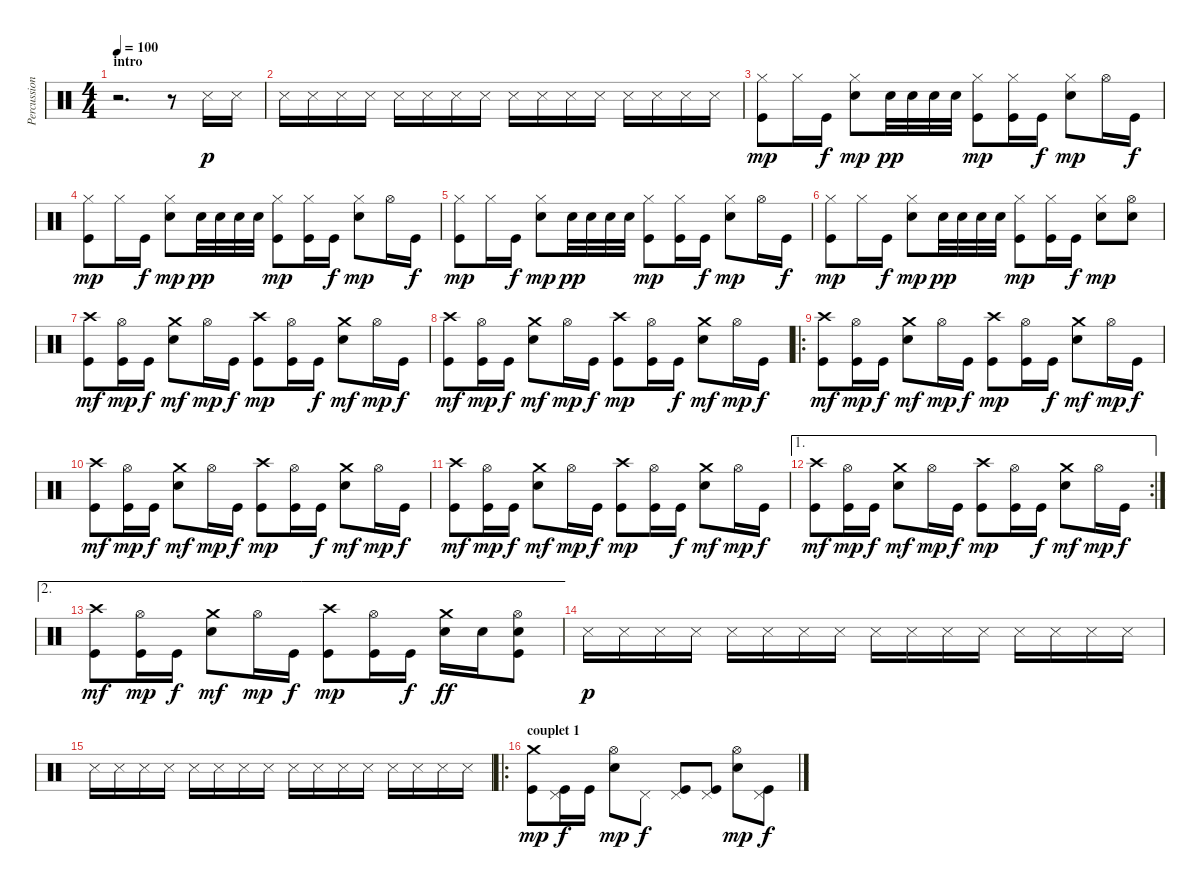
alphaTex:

\track ("Percussions" "Percussion") {instrument percussion}
\staff {score}
\articulation defaults
\ts (4 4)
\section ("" "intro")
\tempo 100
\clef neutral
\ks c
r.2{d dy p} r.8 "Metronome (hit)".16 "Metronome (hit)".16 |
"Metronome (hit)".16 "Metronome (hit)".16 "Metronome (hit)".16 "Metronome (hit)".16 "Metronome (hit)".16 "Metronome (hit)".16 "Metronome (hit)".16 "Metronome (hit)".16 "Metronome (hit)".16 "Metronome (hit)".16 "Metronome (hit)".16 "Metronome (hit)".16 "Metronome (hit)".16 "Metronome (hit)".16 "Metronome (hit)".16 "Metronome (hit)".16 |
("Hi-Hat (closed)" "Kick (hit)").8{dy mp} "Hi-Hat (closed)".16 "Kick (hit)".16{dy f} ("Hi-Hat (closed)" "Electric Snare (hit)").8{dy mp} "Snare (hit) 2".32{dy pp} "Snare (hit) 2".32 "Snare (hit) 2".32 "Snare (hit) 2".32 ("Hi-Hat (closed)" "Kick (hit)").8{dy mp} ("Hi-Hat (closed)" "Kick (hit)").16 "Kick (hit)".16{dy f} ("Hi-Hat (closed)" "Electric Snare (hit)").8{dy mp} "Hi-Hat (open)".16 "Kick (hit)".16{dy f} |
("Hi-Hat (closed)" "Kick (hit)").8{dy mp} "Hi-Hat (closed)".16 "Kick (hit)".16{dy f} ("Hi-Hat (closed)" "Electric Snare (hit)").8{dy mp} "Snare (hit) 2".32{dy pp} "Snare (hit) 2".32 "Snare (hit) 2".32 "Snare (hit) 2".32 ("Hi-Hat (closed)" "Kick (hit)").8{dy mp} ("Hi-Hat (closed)" "Kick (hit)").16 "Kick (hit)".16{dy f} ("Hi-Hat (closed)" "Electric Snare (hit)").8{dy mp} "Hi-Hat (open)".16 "Kick (hit)".16{dy f} |
("Hi-Hat (closed)" "Kick (hit)").8{dy mp} "Hi-Hat (closed)".16 "Kick (hit)".16{dy f} ("Hi-Hat (closed)" "Electric Snare (hit)").8{dy mp} "Snare (hit) 2".32{dy pp} "Snare (hit) 2".32 "Snare (hit) 2".32 "Snare (hit) 2".32 ("Hi-Hat (closed)" "Kick (hit)").8{dy mp} ("Hi-Hat (closed)" "Kick (hit)").16 "Kick (hit)".16{dy f} ("Hi-Hat (closed)" "Electric Snare (hit)").8{dy mp} "Hi-Hat (open)".16 "Kick (hit)".16{dy f} |
("Hi-Hat (closed)" "Kick (hit)").8{dy mp} "Hi-Hat (closed)".16 "Kick (hit)".16{dy f} ("Hi-Hat (closed)" "Electric Snare (hit)").8{dy mp} "Snare (hit) 2".32{dy pp} "Snare (hit) 2".32 "Snare (hit) 2".32 "Snare (hit) 2".32 ("Hi-Hat (closed)" "Kick (hit)").8{dy mp} ("Hi-Hat (closed)" "Kick (hit)").16 "Kick (hit)".16{dy f} ("Hi-Hat (closed)" "Electric Snare (hit)").8{dy mp volume 15} ("Hi-Hat (open)" "Electric Snare (hit)").8 |
("Crash high (hit)" "Kick (hit)").8{dy mf} ("Hi-Hat (open)" "Kick (hit)").16{dy mp} "Kick (hit)".16{dy f} ("Crash medium (hit)" "Electric Snare (hit)").8{dy mf} "Hi-Hat (open)".16{dy mp} "Kick (hit)".16{dy f} ("Crash high (hit)" "Kick (hit)").8{dy mp} ("Hi-Hat (open)" "Kick (hit)").16 "Kick (hit)".16{dy f} ("Crash medium (hit)" "Electric Snare (hit)").8{dy mf} "Hi-Hat (open)".16{dy mp} "Kick (hit)".16{dy f} |
("Crash high (hit)" "Kick (hit)").8{dy mf} ("Hi-Hat (open)" "Kick (hit)").16{dy mp} "Kick (hit)".16{dy f} ("Crash medium (hit)" "Electric Snare (hit)").8{dy mf} "Hi-Hat (open)".16{dy mp} "Kick (hit)".16{dy f} ("Crash high (hit)" "Kick (hit)").8{dy mp} ("Hi-Hat (open)" "Kick (hit)").16 "Kick (hit)".16{dy f} ("Crash medium (hit)" "Electric Snare (hit)").8{dy mf} "Hi-Hat (open)".16{dy mp} "Kick (hit)".16{dy f} |
\ro
("Crash high (hit)" "Kick (hit)").8{dy mf} ("Hi-Hat (open)" "Kick (hit)").16{dy mp} "Kick (hit)".16{dy f} ("Crash medium (hit)" "Electric Snare (hit)").8{dy mf} "Hi-Hat (open)".16{dy mp} "Kick (hit)".16{dy f} ("Crash high (hit)" "Kick (hit)").8{dy mp} ("Hi-Hat (open)" "Kick (hit)").16 "Kick (hit)".16{dy f} ("Crash medium (hit)" "Electric Snare (hit)").8{dy mf} "Hi-Hat (open)".16{dy mp} "Kick (hit)".16{dy f} |
("Crash high (hit)" "Kick (hit)").8{dy mf} ("Hi-Hat (open)" "Kick (hit)").16{dy mp} "Kick (hit)".16{dy f} ("Crash medium (hit)" "Electric Snare (hit)").8{dy mf} "Hi-Hat (open)".16{dy mp} "Kick (hit)".16{dy f} ("Crash high (hit)" "Kick (hit)").8{dy mp} ("Hi-Hat (open)" "Kick (hit)").16 "Kick (hit)".16{dy f} ("Crash medium (hit)" "Electric Snare (hit)").8{dy mf} "Hi-Hat (open)".16{dy mp} "Kick (hit)".16{dy f} |
("Crash high (hit)" "Kick (hit)").8{dy mf} ("Hi-Hat (open)" "Kick (hit)").16{dy mp} "Kick (hit)".16{dy f} ("Crash medium (hit)" "Electric Snare (hit)").8{dy mf} "Hi-Hat (open)".16{dy mp} "Kick (hit)".16{dy f} ("Crash high (hit)" "Kick (hit)").8{dy mp} ("Hi-Hat (open)" "Kick (hit)").16 "Kick (hit)".16{dy f} ("Crash medium (hit)" "Electric Snare (hit)").8{dy mf} "Hi-Hat (open)".16{dy mp} "Kick (hit)".16{dy f} |
\ae 1
\rc 2
("Crash high (hit)" "Kick (hit)").8{dy mf} ("Hi-Hat (open)" "Kick (hit)").16{dy mp} "Kick (hit)".16{dy f} ("Crash medium (hit)" "Electric Snare (hit)").8{dy mf} "Hi-Hat (open)".16{dy mp} "Kick (hit)".16{dy f} ("Crash high (hit)" "Kick (hit)").8{dy mp} ("Hi-Hat (open)" "Kick (hit)").16 "Kick (hit)".16{dy f} ("Crash medium (hit)" "Electric Snare (hit)").8{dy mf} "Hi-Hat (open)".16{dy mp} "Kick (hit)".16{dy f} |
\ae 2
("Crash high (hit)" "Kick (hit)").8{dy mf} ("Hi-Hat (open)" "Kick (hit)").16{dy mp} "Kick (hit)".16{dy f} ("Crash medium (hit)" "Electric Snare (hit)").8{dy mf} "Hi-Hat (open)".16{dy mp} "Kick (hit)".16{dy f} ("Crash high (hit)" "Kick (hit)").8{dy mp} ("Hi-Hat (open)" "Kick (hit)").16 "Kick (hit)".16{dy f} ("Crash medium (hit)" "Electric Snare (hit)").16{dy ff} "Electric Snare (hit)".16 ("Hi-Hat (open)" "Electric Snare (hit)" "Kick (hit)").8 |
"Metronome (hit)".16{dy p volume 10} "Metronome (hit)".16 "Metronome (hit)".16 "Metronome (hit)".16 "Metronome (hit)".16 "Metronome (hit)".16 "Metronome (hit)".16 "Metronome (hit)".16 "Metronome (hit)".16 "Metronome (hit)".16 "Metronome (hit)".16 "Metronome (hit)".16 "Metronome (hit)".16 "Metronome (hit)".16 "Metronome (hit)".16 "Metronome (hit)".16 |
"Metronome (hit)".16 "Metronome (hit)".16 "Metronome (hit)".16 "Metronome (hit)".16 "Metronome (hit)".16 "Metronome (hit)".16 "Metronome (hit)".16 "Metronome (hit)".16 "Metronome (hit)".16 "Metronome (hit)".16 "Metronome (hit)".16 "Metronome (hit)".16 "Metronome (hit)".16 "Metronome (hit)".16 "Metronome (hit)".16 "Metronome (hit)".16 |
\ro
\section ("" "couplet 1")
("Crash medium (hit)" "Kick (hit)").8{dy mp} ("Pedal Hi-Hat (hit)" "Kick (hit)").16{dy f} "Kick (hit)".16 ("Hi-Hat (open)" "Electric Snare (hit)").8{dy mp} "Pedal Hi-Hat (hit)".8{dy f} ("Pedal Hi-Hat (hit)" "Kick (hit)").8 ("Pedal Hi-Hat (hit)" "Kick (hit)").8 ("Hi-Hat (open)" "Electric Snare (hit)").8{dy mp} ("Pedal Hi-Hat (hit)" "Kick (hit)").8{dy f}
